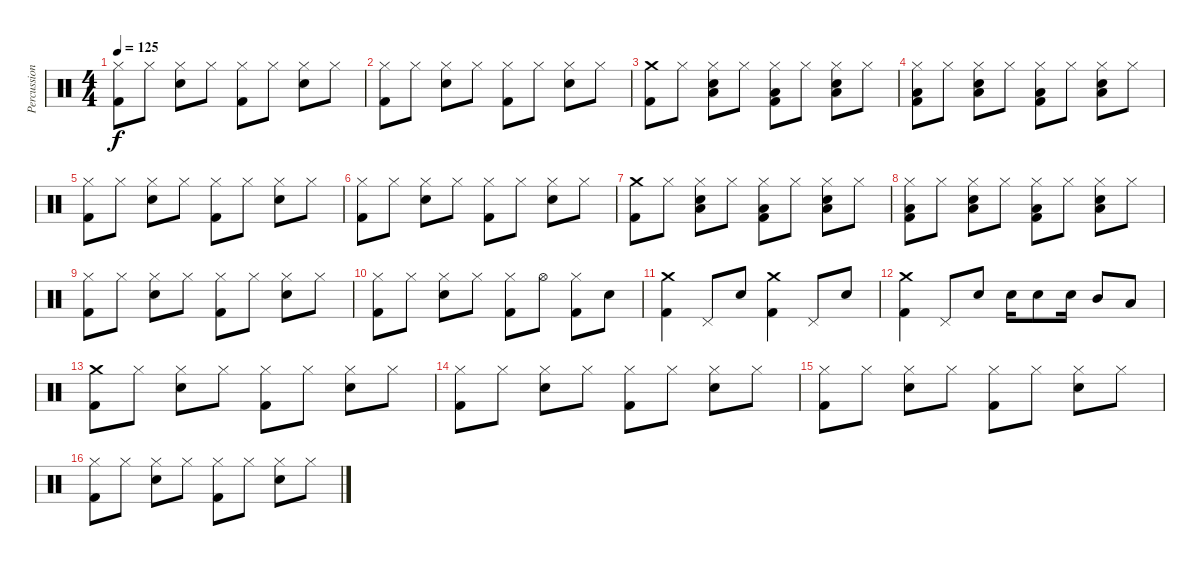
\track ("Percussions" "Percussion") {instrument percussion}
\staff {score}
\articulation defaults
\ts (4 4)
\tempo 125
\clef neutral
\ks c
("Hi-Hat (closed)" "Kick (hit) 2").8{dy f} "Hi-Hat (closed)".8 ("Hi-Hat (closed)" "Snare (hit) 2").8 "Hi-Hat (closed)".8 ("Hi-Hat (closed)" "Kick (hit) 2").8 "Hi-Hat (closed)".8 ("Hi-Hat (closed)" "Snare (hit) 2").8 "Hi-Hat (closed)".8 |
("Hi-Hat (closed)" "Kick (hit) 2").8 "Hi-Hat (closed)".8 ("Hi-Hat (closed)" "Snare (hit) 2").8 "Hi-Hat (closed)".8 ("Hi-Hat (closed)" "Kick (hit) 2").8 "Hi-Hat (closed)".8 ("Hi-Hat (closed)" "Snare (hit) 2").8 "Hi-Hat (closed)".8 |
("Crash medium (hit)" "Kick (hit) 2").8 "Hi-Hat (closed)".8 ("Hi-Hat (closed)" "Low Tom (hit)" "Snare (hit) 2").8 "Hi-Hat (closed)".8 ("Hi-Hat (closed)" "Low Tom (hit)" "Kick (hit) 2").8 "Hi-Hat (closed)".8 ("Hi-Hat (closed)" "Low Tom (hit)" "Snare (hit) 2").8 "Hi-Hat (closed)".8 |
("Hi-Hat (closed)" "Low Tom (hit)" "Kick (hit) 2").8 "Hi-Hat (closed)".8 ("Hi-Hat (closed)" "Low Tom (hit)" "Snare (hit) 2").8 "Hi-Hat (closed)".8 ("Hi-Hat (closed)" "Low Tom (hit)" "Kick (hit) 2").8 "Hi-Hat (closed)".8 ("Hi-Hat (closed)" "Low Tom (hit)" "Snare (hit) 2").8 "Hi-Hat (closed)".8 |
("Hi-Hat (closed)" "Kick (hit) 2").8 "Hi-Hat (closed)".8 ("Hi-Hat (closed)" "Snare (hit) 2").8 "Hi-Hat (closed)".8 ("Hi-Hat (closed)" "Kick (hit) 2").8 "Hi-Hat (closed)".8 ("Hi-Hat (closed)" "Snare (hit) 2").8 "Hi-Hat (closed)".8 |
("Hi-Hat (closed)" "Kick (hit) 2").8 "Hi-Hat (closed)".8 ("Hi-Hat (closed)" "Snare (hit) 2").8 "Hi-Hat (closed)".8 ("Hi-Hat (closed)" "Kick (hit) 2").8 "Hi-Hat (closed)".8 ("Hi-Hat (closed)" "Snare (hit) 2").8 "Hi-Hat (closed)".8 |
("Crash medium (hit)" "Kick (hit) 2").8 "Hi-Hat (closed)".8 ("Hi-Hat (closed)" "Low Tom (hit)" "Snare (hit) 2").8 "Hi-Hat (closed)".8 ("Hi-Hat (closed)" "Low Tom (hit)" "Kick (hit) 2").8 "Hi-Hat (closed)".8 ("Hi-Hat (closed)" "Low Tom (hit)" "Snare (hit) 2").8 "Hi-Hat (closed)".8 |
("Hi-Hat (closed)" "Low Tom (hit)" "Kick (hit) 2").8 "Hi-Hat (closed)".8 ("Hi-Hat (closed)" "Low Tom (hit)" "Snare (hit) 2").8 "Hi-Hat (closed)".8 ("Hi-Hat (closed)" "Low Tom (hit)" "Kick (hit) 2").8 "Hi-Hat (closed)".8 ("Hi-Hat (closed)" "Low Tom (hit)" "Snare (hit) 2").8 "Hi-Hat (closed)".8 |
("Hi-Hat (closed)" "Kick (hit) 2").8 "Hi-Hat (closed)".8 ("Hi-Hat (closed)" "Snare (hit) 2").8 "Hi-Hat (closed)".8 ("Hi-Hat (closed)" "Kick (hit) 2").8 "Hi-Hat (closed)".8 ("Hi-Hat (closed)" "Snare (hit) 2").8 "Hi-Hat (closed)".8 |
("Hi-Hat (closed)" "Kick (hit) 2").8 "Hi-Hat (closed)".8 ("Hi-Hat (closed)" "Snare (hit) 2").8 "Hi-Hat (closed)".8 ("Hi-Hat (closed)" "Kick (hit) 2").8 "Hi-Hat (open)".8 ("Hi-Hat (closed)" "Kick (hit) 2").8 "Snare (hit) 2".8 |
("Crash medium (hit)" "Kick (hit) 2").4 "Pedal Hi-Hat (hit)".8 "Snare (hit) 2".8 ("Crash medium (hit)" "Kick (hit) 2").4 "Pedal Hi-Hat (hit)".8 "Snare (hit) 2".8 |
("Crash medium (hit)" "Kick (hit) 2").4 "Pedal Hi-Hat (hit)".8 "Snare (hit) 2".8 "Snare (hit) 2".16 "Snare (hit) 2".8 "Snare (hit) 2".16 "Mid Tom (hit)".8 "Low Tom (hit)".8 |
("Crash medium (hit)" "Kick (hit) 2").8 "Hi-Hat (closed)".8 ("Hi-Hat (closed)" "Snare (hit) 2").8 "Hi-Hat (closed)".8 ("Hi-Hat (closed)" "Kick (hit) 2").8 "Hi-Hat (closed)".8 ("Hi-Hat (closed)" "Snare (hit) 2").8 "Hi-Hat (closed)".8 |
("Hi-Hat (closed)" "Kick (hit) 2").8 "Hi-Hat (closed)".8 ("Hi-Hat (closed)" "Snare (hit) 2").8 "Hi-Hat (closed)".8 ("Hi-Hat (closed)" "Kick (hit) 2").8 "Hi-Hat (closed)".8 ("Hi-Hat (closed)" "Snare (hit) 2").8 "Hi-Hat (closed)".8 |
("Hi-Hat (closed)" "Kick (hit) 2").8 "Hi-Hat (closed)".8 ("Hi-Hat (closed)" "Snare (hit) 2").8 "Hi-Hat (closed)".8 ("Hi-Hat (closed)" "Kick (hit) 2").8 "Hi-Hat (closed)".8 ("Hi-Hat (closed)" "Snare (hit) 2").8 "Hi-Hat (closed)".8 |
("Hi-Hat (closed)" "Kick (hit) 2").8 "Hi-Hat (closed)".8 ("Hi-Hat (closed)" "Snare (hit) 2").8 "Hi-Hat (closed)".8 ("Hi-Hat (closed)" "Kick (hit) 2").8 "Hi-Hat (closed)".8 ("Hi-Hat (closed)" "Snare (hit) 2").8 "Hi-Hat (closed)".8
